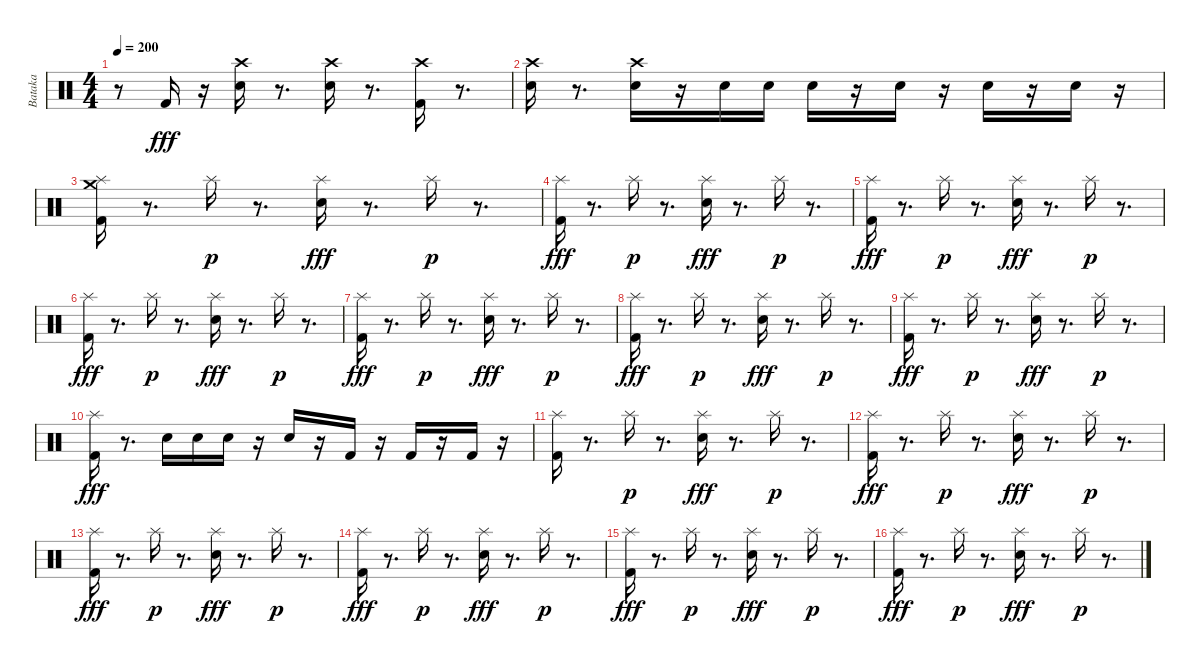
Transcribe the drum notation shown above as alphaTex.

\track ("Bataka" "Bataka") {instrument percussion}
\staff {score}
\articulation defaults
\ts (4 4)
\tempo 200
\clef neutral
\ks c
r.8{dy fff} "Kick (hit) 2".16 r.16 ("Crash high (hit)" "Electric Snare (hit)").16 r.8{d} ("Crash high (hit)" "Electric Snare (hit)").16 r.8{d} ("Crash high (hit)" "Kick (hit) 2").16 r.8{d} |
("Crash high (hit)" "Electric Snare (hit)").16 r.8{d} ("Crash high (hit)" "Electric Snare (hit)").16 r.16 "Electric Snare (hit)".16 "Electric Snare (hit)".16 "Electric Snare (hit)".16 r.16 "Electric Snare (hit)".16 r.16 "Electric Snare (hit)".16 r.16 "Electric Snare (hit)".16 r.16 |
("Splash (hit)" "Kick (hit) 2" "Crash medium (hit)").16 r.8{d} "Splash (hit)".16{dy p} r.8{d} ("Splash (hit)" "Electric Snare (hit)").16{dy fff} r.8{d} "Splash (hit)".16{dy p} r.8{d} |
("Splash (hit)" "Kick (hit) 2").16{dy fff} r.8{d} "Splash (hit)".16{dy p} r.8{d} ("Splash (hit)" "Electric Snare (hit)").16{dy fff} r.8{d} "Splash (hit)".16{dy p} r.8{d} |
("Splash (hit)" "Kick (hit) 2").16{dy fff} r.8{d} "Splash (hit)".16{dy p} r.8{d} ("Splash (hit)" "Electric Snare (hit)").16{dy fff} r.8{d} "Splash (hit)".16{dy p} r.8{d} |
("Splash (hit)" "Kick (hit) 2").16{dy fff} r.8{d} "Splash (hit)".16{dy p} r.8{d} ("Splash (hit)" "Electric Snare (hit)").16{dy fff} r.8{d} "Splash (hit)".16{dy p} r.8{d} |
("Splash (hit)" "Kick (hit) 2").16{dy fff} r.8{d} "Splash (hit)".16{dy p} r.8{d} ("Splash (hit)" "Electric Snare (hit)").16{dy fff} r.8{d} "Splash (hit)".16{dy p} r.8{d} |
("Splash (hit)" "Kick (hit) 2").16{dy fff} r.8{d} "Splash (hit)".16{dy p} r.8{d} ("Splash (hit)" "Electric Snare (hit)").16{dy fff} r.8{d} "Splash (hit)".16{dy p} r.8{d} |
("Splash (hit)" "Kick (hit) 2").16{dy fff} r.8{d} "Splash (hit)".16{dy p} r.8{d} ("Splash (hit)" "Electric Snare (hit)").16{dy fff} r.8{d} "Splash (hit)".16{dy p} r.8{d} |
("Splash (hit)" "Kick (hit) 2").16{dy fff} r.8{d} "Electric Snare (hit)".16 "Electric Snare (hit)".16 "Electric Snare (hit)".16 r.16 "Electric Snare (hit)".16 r.16 "Kick (hit) 2".16 r.16 "Kick (hit) 2".16 r.16 "Kick (hit) 2".16 r.16 |
("Splash (hit)" "Kick (hit) 2").16 r.8{d} "Splash (hit)".16{dy p} r.8{d} ("Splash (hit)" "Electric Snare (hit)").16{dy fff} r.8{d} "Splash (hit)".16{dy p} r.8{d} |
("Splash (hit)" "Kick (hit) 2").16{dy fff} r.8{d} "Splash (hit)".16{dy p} r.8{d} ("Splash (hit)" "Electric Snare (hit)").16{dy fff} r.8{d} "Splash (hit)".16{dy p} r.8{d} |
("Splash (hit)" "Kick (hit) 2").16{dy fff} r.8{d} "Splash (hit)".16{dy p} r.8{d} ("Splash (hit)" "Electric Snare (hit)").16{dy fff} r.8{d} "Splash (hit)".16{dy p} r.8{d} |
("Splash (hit)" "Kick (hit) 2").16{dy fff} r.8{d} "Splash (hit)".16{dy p} r.8{d} ("Splash (hit)" "Electric Snare (hit)").16{dy fff} r.8{d} "Splash (hit)".16{dy p} r.8{d} |
("Splash (hit)" "Kick (hit) 2").16{dy fff} r.8{d} "Splash (hit)".16{dy p} r.8{d} ("Splash (hit)" "Electric Snare (hit)").16{dy fff} r.8{d} "Splash (hit)".16{dy p} r.8{d} |
("Splash (hit)" "Kick (hit) 2").16{dy fff} r.8{d} "Splash (hit)".16{dy p} r.8{d} ("Splash (hit)" "Electric Snare (hit)").16{dy fff} r.8{d} "Splash (hit)".16{dy p} r.8{d}
